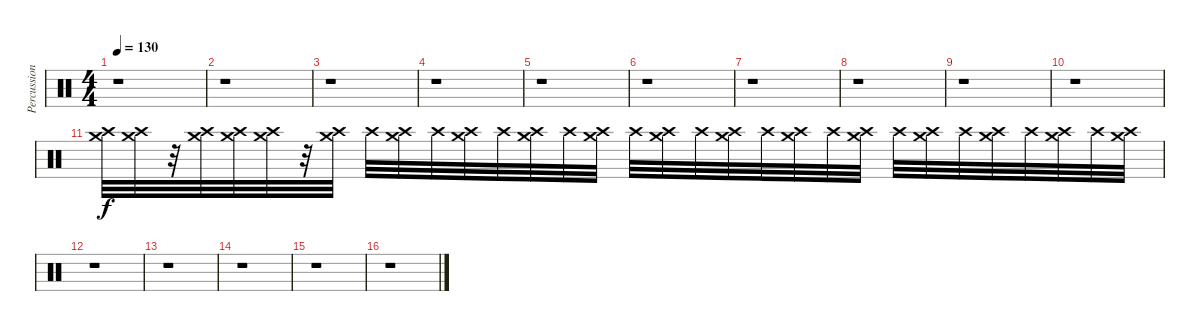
\track ("Percussioni" "Percussion") {instrument percussion}
\staff {score}
\articulation defaults
\ts (4 4)
\tempo 130
\clef neutral
\ks c
r.1{dy f} |
r.1 |
r.1 |
r.1 |
r.1 |
r.1 |
r.1 |
r.1 |
r.1 |
r.1 |
("Crash high (hit)" "Crash medium (hit)").32{volume 0} ("Crash high (hit)" "Crash medium (hit)").32{volume 0} r.32 ("Crash high (hit)" "Crash medium (hit)").32{volume 0} ("Crash high (hit)" "Crash medium (hit)").32{volume 1} ("Crash high (hit)" "Crash medium (hit)").32{volume 1} r.32 ("Crash high (hit)" "Crash medium (hit)").32{volume 1} "Crash high (hit)".32{volume 1} ("Crash high (hit)" "Crash medium (hit)").32{volume 1} "Crash high (hit)".32{volume 2} ("Crash high (hit)" "Crash medium (hit)").32{volume 2} "Crash high (hit)".32{volume 3} ("Crash high (hit)" "Crash medium (hit)").32{volume 3} "Crash high (hit)".32{volume 4} ("Crash high (hit)" "Crash medium (hit)").32{volume 4} "Crash high (hit)".32{volume 5} ("Crash high (hit)" "Crash medium (hit)").32{volume 5} "Crash high (hit)".32{volume 6} ("Crash high (hit)" "Crash medium (hit)").32{volume 6} "Crash high (hit)".32{volume 7} ("Crash high (hit)" "Crash medium (hit)").32{volume 7} "Crash high (hit)".32{volume 8} ("Crash high (hit)" "Crash medium (hit)").32{volume 8} "Crash high (hit)".32{volume 9} ("Crash high (hit)" "Crash medium (hit)").32{volume 9} "Crash high (hit)".32{volume 10} ("Crash high (hit)" "Crash medium (hit)").32{volume 10} "Crash high (hit)".32{volume 11} ("Crash high (hit)" "Crash medium (hit)").32{volume 11} "Crash high (hit)".32 ("Crash high (hit)" "Crash medium (hit)").32 |
r.1 |
r.1 |
r.1 |
r.1 |
r.1
